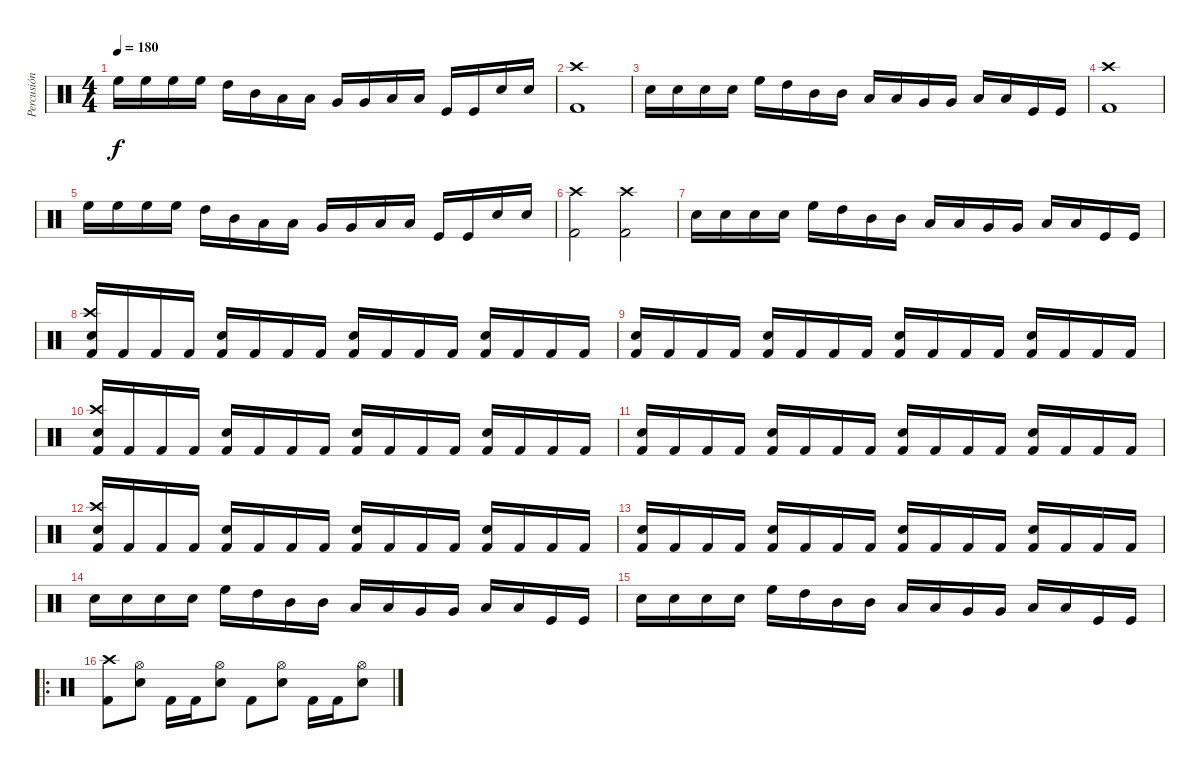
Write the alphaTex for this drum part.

\track ("Percusión" "Percusión") {instrument percussion}
\staff {score}
\articulation defaults
\ts (4 4)
\tempo 180
\clef neutral
\ks c "High Floor Tom (hit)".16{dy f} "High Floor Tom (hit)".16 "High Floor Tom (hit)".16 "High Floor Tom (hit)".16 "High Tom (hit)".16 "Mid Tom (hit)".16 "Low Tom (hit)".16 "Low Tom (hit)".16 "Very Low Tom (hit)".16 "Very Low Tom (hit)".16 "Low Floor Tom (hit)".16 "Low Floor Tom (hit)".16 "Kick (hit)".16 "Kick (hit)".16 "Electric Snare (hit)".16 "Electric Snare (hit)".16
|
("Crash high (hit)" "Kick (hit) 2").1 |
"Electric Snare (hit)".16 "Electric Snare (hit)".16 "Electric Snare (hit)".16 "Electric Snare (hit)".16 "High Floor Tom (hit)".16 "High Tom (hit)".16 "Mid Tom (hit)".16 "Mid Tom (hit)".16 "Low Tom (hit)".16 "Low Tom (hit)".16 "Very Low Tom (hit)".16 "Very Low Tom (hit)".16 "Low Floor Tom (hit)".16 "Low Floor Tom (hit)".16 "Kick (hit)".16 "Kick (hit)".16 |
("Crash high (hit)" "Kick (hit) 2").1 |
"High Floor Tom (hit)".16 "High Floor Tom (hit)".16 "High Floor Tom (hit)".16 "High Floor Tom (hit)".16 "High Tom (hit)".16 "Mid Tom (hit)".16 "Low Tom (hit)".16 "Low Tom (hit)".16 "Very Low Tom (hit)".16 "Very Low Tom (hit)".16 "Low Floor Tom (hit)".16 "Low Floor Tom (hit)".16 "Kick (hit)".16 "Kick (hit)".16 "Electric Snare (hit)".16 "Electric Snare (hit)".16 |
("Crash high (hit)" "Kick (hit) 2").2 ("Crash high (hit)" "Kick (hit) 2").2 |
"Electric Snare (hit)".16 "Electric Snare (hit)".16 "Electric Snare (hit)".16 "Electric Snare (hit)".16 "High Floor Tom (hit)".16 "High Tom (hit)".16 "Mid Tom (hit)".16 "Mid Tom (hit)".16 "Low Tom (hit)".16 "Low Tom (hit)".16 "Very Low Tom (hit)".16 "Very Low Tom (hit)".16 "Low Floor Tom (hit)".16 "Low Floor Tom (hit)".16 "Kick (hit)".16 "Kick (hit)".16 |
("Crash high (hit)" "Kick (hit) 2" "Electric Snare (hit)").16 "Kick (hit) 2".16 "Kick (hit) 2".16 "Kick (hit) 2".16 ("Kick (hit) 2" "Electric Snare (hit)").16 "Kick (hit) 2".16 "Kick (hit) 2".16 "Kick (hit) 2".16 ("Kick (hit) 2" "Electric Snare (hit)").16 "Kick (hit) 2".16 "Kick (hit) 2".16 "Kick (hit) 2".16 ("Kick (hit) 2" "Electric Snare (hit)").16 "Kick (hit) 2".16 "Kick (hit) 2".16 "Kick (hit) 2".16 |
("Kick (hit) 2" "Electric Snare (hit)").16 "Kick (hit) 2".16 "Kick (hit) 2".16 "Kick (hit) 2".16 ("Kick (hit) 2" "Electric Snare (hit)").16 "Kick (hit) 2".16 "Kick (hit) 2".16 "Kick (hit) 2".16 ("Kick (hit) 2" "Electric Snare (hit)").16 "Kick (hit) 2".16 "Kick (hit) 2".16 "Kick (hit) 2".16 ("Kick (hit) 2" "Electric Snare (hit)").16 "Kick (hit) 2".16 "Kick (hit) 2".16 "Kick (hit) 2".16 |
("Crash high (hit)" "Kick (hit) 2" "Electric Snare (hit)").16 "Kick (hit) 2".16 "Kick (hit) 2".16 "Kick (hit) 2".16 ("Kick (hit) 2" "Electric Snare (hit)").16 "Kick (hit) 2".16 "Kick (hit) 2".16 "Kick (hit) 2".16 ("Kick (hit) 2" "Electric Snare (hit)").16 "Kick (hit) 2".16 "Kick (hit) 2".16 "Kick (hit) 2".16 ("Kick (hit) 2" "Electric Snare (hit)").16 "Kick (hit) 2".16 "Kick (hit) 2".16 "Kick (hit) 2".16 |
("Kick (hit) 2" "Electric Snare (hit)").16 "Kick (hit) 2".16 "Kick (hit) 2".16 "Kick (hit) 2".16 ("Kick (hit) 2" "Electric Snare (hit)").16 "Kick (hit) 2".16 "Kick (hit) 2".16 "Kick (hit) 2".16 ("Kick (hit) 2" "Electric Snare (hit)").16 "Kick (hit) 2".16 "Kick (hit) 2".16 "Kick (hit) 2".16 ("Kick (hit) 2" "Electric Snare (hit)").16 "Kick (hit) 2".16 "Kick (hit) 2".16 "Kick (hit) 2".16 |
("Crash high (hit)" "Kick (hit) 2" "Electric Snare (hit)").16 "Kick (hit) 2".16 "Kick (hit) 2".16 "Kick (hit) 2".16 ("Kick (hit) 2" "Electric Snare (hit)").16 "Kick (hit) 2".16 "Kick (hit) 2".16 "Kick (hit) 2".16 ("Kick (hit) 2" "Electric Snare (hit)").16 "Kick (hit) 2".16 "Kick (hit) 2".16 "Kick (hit) 2".16 ("Kick (hit) 2" "Electric Snare (hit)").16 "Kick (hit) 2".16 "Kick (hit) 2".16 "Kick (hit) 2".16 |
("Kick (hit) 2" "Electric Snare (hit)").16 "Kick (hit) 2".16 "Kick (hit) 2".16 "Kick (hit) 2".16 ("Kick (hit) 2" "Electric Snare (hit)").16 "Kick (hit) 2".16 "Kick (hit) 2".16 "Kick (hit) 2".16 ("Kick (hit) 2" "Electric Snare (hit)").16 "Kick (hit) 2".16 "Kick (hit) 2".16 "Kick (hit) 2".16 ("Kick (hit) 2" "Electric Snare (hit)").16 "Kick (hit) 2".16 "Kick (hit) 2".16 "Kick (hit) 2".16 |
"Electric Snare (hit)".16 "Electric Snare (hit)".16 "Electric Snare (hit)".16 "Electric Snare (hit)".16 "High Floor Tom (hit)".16 "High Tom (hit)".16 "Mid Tom (hit)".16 "Mid Tom (hit)".16 "Low Tom (hit)".16 "Low Tom (hit)".16 "Very Low Tom (hit)".16 "Very Low Tom (hit)".16 "Low Floor Tom (hit)".16 "Low Floor Tom (hit)".16 "Kick (hit)".16 "Kick (hit)".16 |
"Electric Snare (hit)".16 "Electric Snare (hit)".16 "Electric Snare (hit)".16 "Electric Snare (hit)".16 "High Floor Tom (hit)".16 "High Tom (hit)".16 "Mid Tom (hit)".16 "Mid Tom (hit)".16 "Low Tom (hit)".16 "Low Tom (hit)".16 "Very Low Tom (hit)".16 "Very Low Tom (hit)".16 "Low Floor Tom (hit)".16 "Low Floor Tom (hit)".16 "Kick (hit)".16 "Kick (hit)".16 |
\ro
("Crash high (hit)" "Kick (hit) 2").8 ("Hi-Hat (open)" "Electric Snare (hit)").8 "Kick (hit) 2".16 "Kick (hit) 2".16 ("Hi-Hat (open)" "Electric Snare (hit)").8 "Kick (hit) 2".8 ("Hi-Hat (open)" "Electric Snare (hit)").8 "Kick (hit) 2".16 "Kick (hit) 2".16 ("Hi-Hat (open)" "Electric Snare (hit)").8
